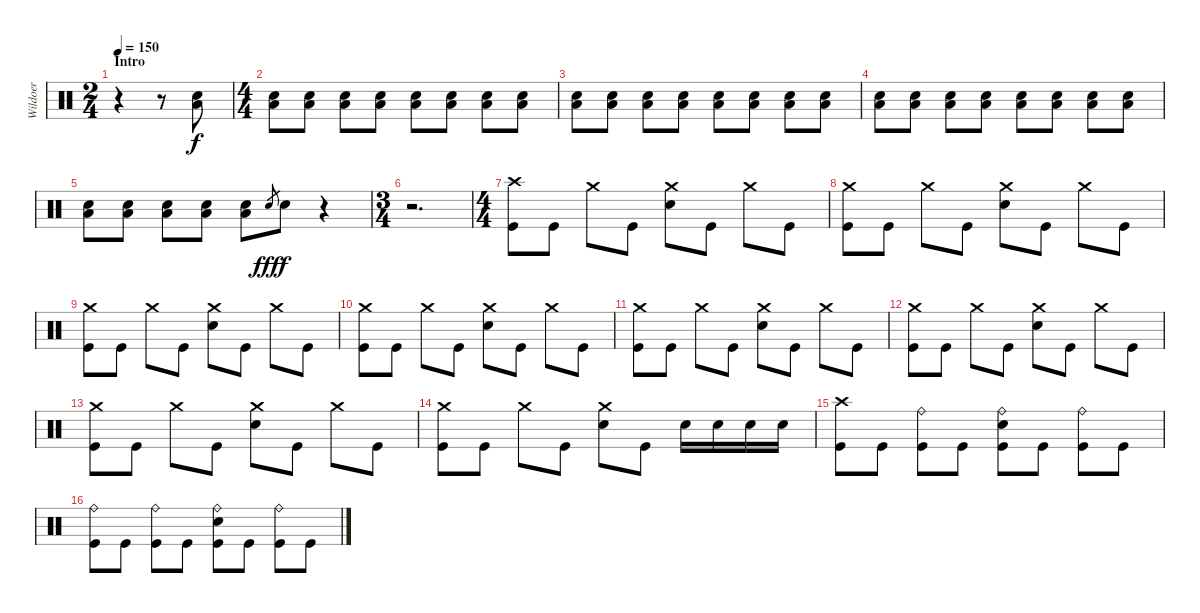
\track ("Wildoer" "Wildoer") {instrument percussion}
\staff {score}
\articulation defaults
\ts (2 4)
\section ("" "Intro")
\tempo 150
\clef neutral
\ks c
r.4{dy f} r.8 ("Low Floor Tom (hit)" "Electric Snare (hit)").8 |
\ts (4 4)
("Low Floor Tom (hit)" "Electric Snare (hit)").8 ("Low Floor Tom (hit)" "Electric Snare (hit)").8 ("Low Floor Tom (hit)" "Electric Snare (hit)").8 ("Low Floor Tom (hit)" "Electric Snare (hit)").8 ("Low Floor Tom (hit)" "Electric Snare (hit)").8 ("Low Floor Tom (hit)" "Electric Snare (hit)").8 ("Low Floor Tom (hit)" "Electric Snare (hit)").8 ("Low Floor Tom (hit)" "Electric Snare (hit)").8 |
("Low Floor Tom (hit)" "Electric Snare (hit)").8 ("Low Floor Tom (hit)" "Electric Snare (hit)").8 ("Low Floor Tom (hit)" "Electric Snare (hit)").8 ("Low Floor Tom (hit)" "Electric Snare (hit)").8 ("Low Floor Tom (hit)" "Electric Snare (hit)").8 ("Low Floor Tom (hit)" "Electric Snare (hit)").8 ("Low Floor Tom (hit)" "Electric Snare (hit)").8 ("Low Floor Tom (hit)" "Electric Snare (hit)").8 |
("Low Floor Tom (hit)" "Electric Snare (hit)").8 ("Low Floor Tom (hit)" "Electric Snare (hit)").8 ("Low Floor Tom (hit)" "Electric Snare (hit)").8 ("Low Floor Tom (hit)" "Electric Snare (hit)").8 ("Low Floor Tom (hit)" "Electric Snare (hit)").8 ("Low Floor Tom (hit)" "Electric Snare (hit)").8 ("Low Floor Tom (hit)" "Electric Snare (hit)").8 ("Low Floor Tom (hit)" "Electric Snare (hit)").8 |
("Low Floor Tom (hit)" "Electric Snare (hit)").8 ("Low Floor Tom (hit)" "Electric Snare (hit)").8 ("Low Floor Tom (hit)" "Electric Snare (hit)").8 ("Low Floor Tom (hit)" "Electric Snare (hit)").8 ("Low Floor Tom (hit)" "Electric Snare (hit)").8 "Electric Snare (hit)".8{gr dy fff} "Electric Snare (hit)".8{dy f} r.4 |
\ts (3 4)
r.2{d} |
\ts (4 4)
("Crash high (hit)" "Kick (hit)").8 "Kick (hit)".8 "Crash medium (hit)".8 "Kick (hit)".8 ("Crash medium (hit)" "Electric Snare (hit)").8 "Kick (hit)".8 "Crash medium (hit)".8 "Kick (hit)".8 |
("Crash medium (hit)" "Kick (hit)").8 "Kick (hit)".8 "Crash medium (hit)".8 "Kick (hit)".8 ("Crash medium (hit)" "Electric Snare (hit)").8 "Kick (hit)".8 "Crash medium (hit)".8 "Kick (hit)".8 |
("Crash medium (hit)" "Kick (hit)").8 "Kick (hit)".8 "Crash medium (hit)".8 "Kick (hit)".8 ("Crash medium (hit)" "Electric Snare (hit)").8 "Kick (hit)".8 "Crash medium (hit)".8 "Kick (hit)".8 |
("Crash medium (hit)" "Kick (hit)").8 "Kick (hit)".8 "Crash medium (hit)".8 "Kick (hit)".8 ("Crash medium (hit)" "Electric Snare (hit)").8 "Kick (hit)".8 "Crash medium (hit)".8 "Kick (hit)".8 |
("Crash medium (hit)" "Kick (hit)").8 "Kick (hit)".8 "Crash medium (hit)".8 "Kick (hit)".8 ("Crash medium (hit)" "Electric Snare (hit)").8 "Kick (hit)".8 "Crash medium (hit)".8 "Kick (hit)".8 |
("Crash medium (hit)" "Kick (hit)").8 "Kick (hit)".8 "Crash medium (hit)".8 "Kick (hit)".8 ("Crash medium (hit)" "Electric Snare (hit)").8 "Kick (hit)".8 "Crash medium (hit)".8 "Kick (hit)".8 |
("Crash medium (hit)" "Kick (hit)").8 "Kick (hit)".8 "Crash medium (hit)".8 "Kick (hit)".8 ("Crash medium (hit)" "Electric Snare (hit)").8 "Kick (hit)".8 "Crash medium (hit)".8 "Kick (hit)".8 |
("Crash medium (hit)" "Kick (hit)").8 "Kick (hit)".8 "Crash medium (hit)".8 "Kick (hit)".8 ("Crash medium (hit)" "Electric Snare (hit)").8 "Kick (hit)".8 "Electric Snare (hit)".16 "Electric Snare (hit)".16 "Electric Snare (hit)".16 "Electric Snare (hit)".16 |
("Crash high (hit)" "Kick (hit)").8 "Kick (hit)".8 ("Ride (bell)" "Kick (hit)").8 "Kick (hit)".8 ("Ride (bell)" "Electric Snare (hit)" "Kick (hit)").8 "Kick (hit)".8 ("Ride (bell)" "Kick (hit)").8 "Kick (hit)".8 |
("Ride (bell)" "Kick (hit)").8 "Kick (hit)".8 ("Ride (bell)" "Kick (hit)").8 "Kick (hit)".8 ("Ride (bell)" "Electric Snare (hit)" "Kick (hit)").8 "Kick (hit)".8 ("Ride (bell)" "Kick (hit)").8 "Kick (hit)".8
